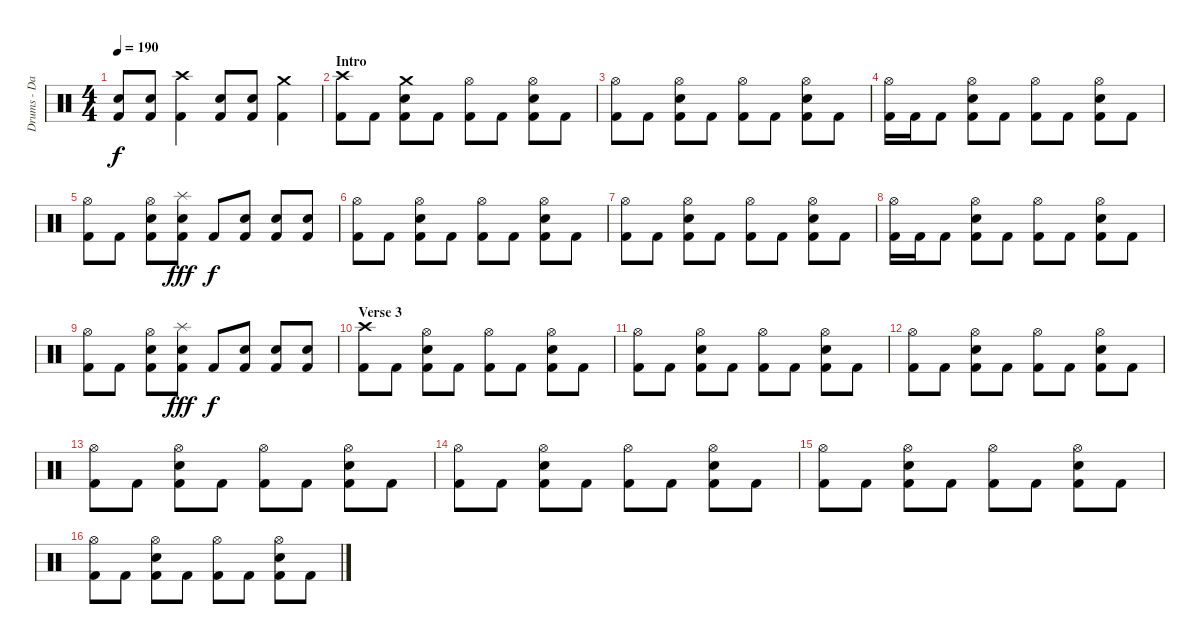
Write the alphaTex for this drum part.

\track ("Drums - Daniel Zimmermann" "Drums - Da") {instrument percussion}
\staff {score}
\articulation defaults
\ts (4 4)
\tempo 190
\clef neutral
\ks c
("Kick (hit) 2" "Electric Snare (hit)").8{dy f} ("Kick (hit) 2" "Electric Snare (hit)").8 ("Kick (hit) 2" "Crash high (hit)").4 ("Kick (hit) 2" "Electric Snare (hit)").8 ("Kick (hit) 2" "Electric Snare (hit)").8 ("Kick (hit) 2" "Crash medium (hit)").4 |
\section ("" "Intro")
("Kick (hit) 2" "Crash high (hit)").8 "Kick (hit) 2".8 ("Kick (hit) 2" "Electric Snare (hit)" "Crash medium (hit)").8 "Kick (hit) 2".8 ("Kick (hit) 2" "Hi-Hat (open)").8 "Kick (hit) 2".8 ("Kick (hit) 2" "Electric Snare (hit)" "Hi-Hat (open)").8 "Kick (hit) 2".8 |
("Kick (hit) 2" "Hi-Hat (open)").8 "Kick (hit) 2".8 ("Kick (hit) 2" "Electric Snare (hit)" "Hi-Hat (open)").8 "Kick (hit) 2".8 ("Kick (hit) 2" "Hi-Hat (open)").8 "Kick (hit) 2".8 ("Kick (hit) 2" "Electric Snare (hit)" "Hi-Hat (open)").8 "Kick (hit) 2".8 |
("Kick (hit) 2" "Hi-Hat (open)").16 "Kick (hit) 2".16 "Kick (hit) 2".8 ("Kick (hit) 2" "Electric Snare (hit)" "Hi-Hat (open)").8 "Kick (hit) 2".8 ("Kick (hit) 2" "Hi-Hat (open)").8 "Kick (hit) 2".8 ("Kick (hit) 2" "Electric Snare (hit)" "Hi-Hat (open)").8 "Kick (hit) 2".8 |
("Kick (hit) 2" "Hi-Hat (open)").8 "Kick (hit) 2".8 ("Kick (hit) 2" "Electric Snare (hit)" "Hi-Hat (open)").8 ("Kick (hit) 2" "Electric Snare (hit)" "Splash (hit)").8{dy fff} "Kick (hit) 2".8{dy f} ("Kick (hit) 2" "Electric Snare (hit)").8 ("Kick (hit) 2" "Electric Snare (hit)").8 ("Kick (hit) 2" "Electric Snare (hit)").8 |
("Kick (hit) 2" "Hi-Hat (open)").8 "Kick (hit) 2".8 ("Kick (hit) 2" "Electric Snare (hit)" "Hi-Hat (open)").8 "Kick (hit) 2".8 ("Kick (hit) 2" "Hi-Hat (open)").8 "Kick (hit) 2".8 ("Kick (hit) 2" "Electric Snare (hit)" "Hi-Hat (open)").8 "Kick (hit) 2".8 |
("Kick (hit) 2" "Hi-Hat (open)").8 "Kick (hit) 2".8 ("Kick (hit) 2" "Electric Snare (hit)" "Hi-Hat (open)").8 "Kick (hit) 2".8 ("Kick (hit) 2" "Hi-Hat (open)").8 "Kick (hit) 2".8 ("Kick (hit) 2" "Electric Snare (hit)" "Hi-Hat (open)").8 "Kick (hit) 2".8 |
("Kick (hit) 2" "Hi-Hat (open)").16 "Kick (hit) 2".16 "Kick (hit) 2".8 ("Kick (hit) 2" "Electric Snare (hit)" "Hi-Hat (open)").8 "Kick (hit) 2".8 ("Kick (hit) 2" "Hi-Hat (open)").8 "Kick (hit) 2".8 ("Kick (hit) 2" "Electric Snare (hit)" "Hi-Hat (open)").8 "Kick (hit) 2".8 |
("Kick (hit) 2" "Hi-Hat (open)").8 "Kick (hit) 2".8 ("Kick (hit) 2" "Electric Snare (hit)" "Hi-Hat (open)").8 ("Kick (hit) 2" "Electric Snare (hit)" "Splash (hit)").8{dy fff} "Kick (hit) 2".8{dy f} ("Kick (hit) 2" "Electric Snare (hit)").8 ("Kick (hit) 2" "Electric Snare (hit)").8 ("Kick (hit) 2" "Electric Snare (hit)").8 |
\section ("" "Verse 3")
("Kick (hit) 2" "Crash high (hit)").8 "Kick (hit) 2".8 ("Kick (hit) 2" "Electric Snare (hit)" "Hi-Hat (open)").8 "Kick (hit) 2".8 ("Kick (hit) 2" "Hi-Hat (open)").8 "Kick (hit) 2".8 ("Kick (hit) 2" "Electric Snare (hit)" "Hi-Hat (open)").8 "Kick (hit) 2".8 |
("Kick (hit) 2" "Hi-Hat (open)").8 "Kick (hit) 2".8 ("Kick (hit) 2" "Electric Snare (hit)" "Hi-Hat (open)").8 "Kick (hit) 2".8 ("Kick (hit) 2" "Hi-Hat (open)").8 "Kick (hit) 2".8 ("Kick (hit) 2" "Electric Snare (hit)" "Hi-Hat (open)").8 "Kick (hit) 2".8 |
("Kick (hit) 2" "Hi-Hat (open)").8 "Kick (hit) 2".8 ("Kick (hit) 2" "Electric Snare (hit)" "Hi-Hat (open)").8 "Kick (hit) 2".8 ("Kick (hit) 2" "Hi-Hat (open)").8 "Kick (hit) 2".8 ("Kick (hit) 2" "Electric Snare (hit)" "Hi-Hat (open)").8 "Kick (hit) 2".8 |
("Kick (hit) 2" "Hi-Hat (open)").8 "Kick (hit) 2".8 ("Kick (hit) 2" "Electric Snare (hit)" "Hi-Hat (open)").8 "Kick (hit) 2".8 ("Kick (hit) 2" "Hi-Hat (open)").8 "Kick (hit) 2".8 ("Kick (hit) 2" "Electric Snare (hit)" "Hi-Hat (open)").8 "Kick (hit) 2".8 |
("Kick (hit) 2" "Hi-Hat (open)").8 "Kick (hit) 2".8 ("Kick (hit) 2" "Electric Snare (hit)" "Hi-Hat (open)").8 "Kick (hit) 2".8 ("Kick (hit) 2" "Hi-Hat (open)").8 "Kick (hit) 2".8 ("Kick (hit) 2" "Electric Snare (hit)" "Hi-Hat (open)").8 "Kick (hit) 2".8 |
("Kick (hit) 2" "Hi-Hat (open)").8 "Kick (hit) 2".8 ("Kick (hit) 2" "Electric Snare (hit)" "Hi-Hat (open)").8 "Kick (hit) 2".8 ("Kick (hit) 2" "Hi-Hat (open)").8 "Kick (hit) 2".8 ("Kick (hit) 2" "Electric Snare (hit)" "Hi-Hat (open)").8 "Kick (hit) 2".8 |
("Kick (hit) 2" "Hi-Hat (open)").8 "Kick (hit) 2".8 ("Kick (hit) 2" "Electric Snare (hit)" "Hi-Hat (open)").8 "Kick (hit) 2".8 ("Kick (hit) 2" "Hi-Hat (open)").8 "Kick (hit) 2".8 ("Kick (hit) 2" "Electric Snare (hit)" "Hi-Hat (open)").8 "Kick (hit) 2".8
